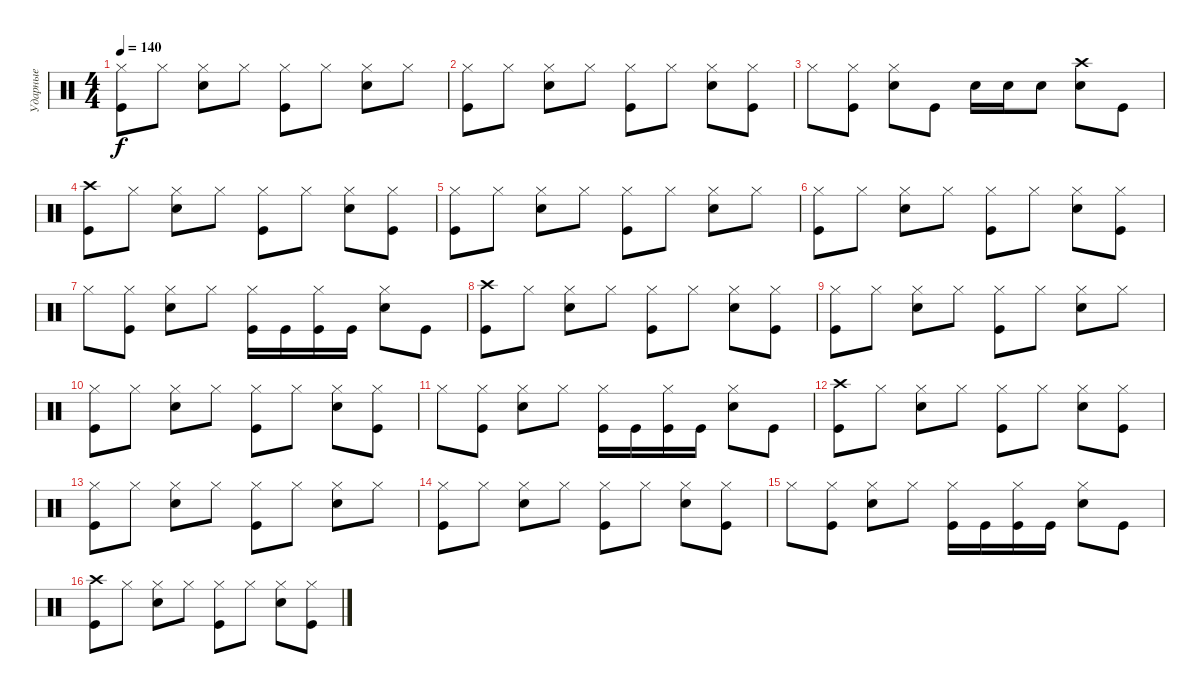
\track ("Ударные" "Ударные") {instrument percussion}
\staff {score}
\articulation defaults
\ts (4 4)
\tempo 140
\clef neutral
\ks c
("Hi-Hat (closed)" "Kick (hit)").8{dy f} "Hi-Hat (closed)".8 ("Hi-Hat (closed)" "Electric Snare (hit)").8 "Hi-Hat (closed)".8 ("Hi-Hat (closed)" "Kick (hit)").8 "Hi-Hat (closed)".8 ("Hi-Hat (closed)" "Electric Snare (hit)").8 "Hi-Hat (closed)".8 |
("Hi-Hat (closed)" "Kick (hit)").8 "Hi-Hat (closed)".8 ("Hi-Hat (closed)" "Electric Snare (hit)").8 "Hi-Hat (closed)".8 ("Hi-Hat (closed)" "Kick (hit)").8 "Hi-Hat (closed)".8 ("Hi-Hat (closed)" "Electric Snare (hit)").8 ("Hi-Hat (closed)" "Kick (hit)").8 |
"Hi-Hat (closed)".8 ("Hi-Hat (closed)" "Kick (hit)").8 ("Hi-Hat (closed)" "Electric Snare (hit)").8 "Kick (hit)".8 "Electric Snare (hit)".16 "Electric Snare (hit)".16 "Electric Snare (hit)".8 ("Crash high (hit)" "Electric Snare (hit)").8 "Kick (hit)".8 |
("Crash high (hit)" "Kick (hit)").8 "Hi-Hat (closed)".8 ("Hi-Hat (closed)" "Electric Snare (hit)").8 "Hi-Hat (closed)".8 ("Hi-Hat (closed)" "Kick (hit)").8 "Hi-Hat (closed)".8 ("Hi-Hat (closed)" "Electric Snare (hit)").8 ("Hi-Hat (closed)" "Kick (hit)").8 |
("Hi-Hat (closed)" "Kick (hit)").8 "Hi-Hat (closed)".8 ("Hi-Hat (closed)" "Electric Snare (hit)").8 "Hi-Hat (closed)".8 ("Hi-Hat (closed)" "Kick (hit)").8 "Hi-Hat (closed)".8 ("Hi-Hat (closed)" "Electric Snare (hit)").8 "Hi-Hat (closed)".8 |
("Hi-Hat (closed)" "Kick (hit)").8 "Hi-Hat (closed)".8 ("Hi-Hat (closed)" "Electric Snare (hit)").8 "Hi-Hat (closed)".8 ("Hi-Hat (closed)" "Kick (hit)").8 "Hi-Hat (closed)".8 ("Hi-Hat (closed)" "Electric Snare (hit)").8 ("Hi-Hat (closed)" "Kick (hit)").8 |
"Hi-Hat (closed)".8 ("Hi-Hat (closed)" "Kick (hit)").8 ("Hi-Hat (closed)" "Electric Snare (hit)").8 "Hi-Hat (closed)".8 ("Hi-Hat (closed)" "Kick (hit)").16 "Kick (hit)".16 ("Hi-Hat (closed)" "Kick (hit)").16 "Kick (hit)".16 ("Hi-Hat (closed)" "Electric Snare (hit)").8 "Kick (hit)".8 |
("Crash high (hit)" "Kick (hit)").8 "Hi-Hat (closed)".8 ("Hi-Hat (closed)" "Electric Snare (hit)").8 "Hi-Hat (closed)".8 ("Hi-Hat (closed)" "Kick (hit)").8 "Hi-Hat (closed)".8 ("Hi-Hat (closed)" "Electric Snare (hit)").8 ("Hi-Hat (closed)" "Kick (hit)").8 |
("Hi-Hat (closed)" "Kick (hit)").8 "Hi-Hat (closed)".8 ("Hi-Hat (closed)" "Electric Snare (hit)").8 "Hi-Hat (closed)".8 ("Hi-Hat (closed)" "Kick (hit)").8 "Hi-Hat (closed)".8 ("Hi-Hat (closed)" "Electric Snare (hit)").8 "Hi-Hat (closed)".8 |
("Hi-Hat (closed)" "Kick (hit)").8 "Hi-Hat (closed)".8 ("Hi-Hat (closed)" "Electric Snare (hit)").8 "Hi-Hat (closed)".8 ("Hi-Hat (closed)" "Kick (hit)").8 "Hi-Hat (closed)".8 ("Hi-Hat (closed)" "Electric Snare (hit)").8 ("Hi-Hat (closed)" "Kick (hit)").8 |
"Hi-Hat (closed)".8 ("Hi-Hat (closed)" "Kick (hit)").8 ("Hi-Hat (closed)" "Electric Snare (hit)").8 "Hi-Hat (closed)".8 ("Hi-Hat (closed)" "Kick (hit)").16 "Kick (hit)".16 ("Hi-Hat (closed)" "Kick (hit)").16 "Kick (hit)".16 ("Hi-Hat (closed)" "Electric Snare (hit)").8 "Kick (hit)".8 |
("Crash high (hit)" "Kick (hit)").8 "Hi-Hat (closed)".8 ("Hi-Hat (closed)" "Electric Snare (hit)").8 "Hi-Hat (closed)".8 ("Hi-Hat (closed)" "Kick (hit)").8 "Hi-Hat (closed)".8 ("Hi-Hat (closed)" "Electric Snare (hit)").8 ("Hi-Hat (closed)" "Kick (hit)").8 |
("Hi-Hat (closed)" "Kick (hit)").8 "Hi-Hat (closed)".8 ("Hi-Hat (closed)" "Electric Snare (hit)").8 "Hi-Hat (closed)".8 ("Hi-Hat (closed)" "Kick (hit)").8 "Hi-Hat (closed)".8 ("Hi-Hat (closed)" "Electric Snare (hit)").8 "Hi-Hat (closed)".8 |
("Hi-Hat (closed)" "Kick (hit)").8 "Hi-Hat (closed)".8 ("Hi-Hat (closed)" "Electric Snare (hit)").8 "Hi-Hat (closed)".8 ("Hi-Hat (closed)" "Kick (hit)").8 "Hi-Hat (closed)".8 ("Hi-Hat (closed)" "Electric Snare (hit)").8 ("Hi-Hat (closed)" "Kick (hit)").8 |
"Hi-Hat (closed)".8 ("Hi-Hat (closed)" "Kick (hit)").8 ("Hi-Hat (closed)" "Electric Snare (hit)").8 "Hi-Hat (closed)".8 ("Hi-Hat (closed)" "Kick (hit)").16 "Kick (hit)".16 ("Hi-Hat (closed)" "Kick (hit)").16 "Kick (hit)".16 ("Hi-Hat (closed)" "Electric Snare (hit)").8 "Kick (hit)".8 |
("Crash high (hit)" "Kick (hit)").8 "Hi-Hat (closed)".8 ("Hi-Hat (closed)" "Electric Snare (hit)").8 "Hi-Hat (closed)".8 ("Hi-Hat (closed)" "Kick (hit)").8 "Hi-Hat (closed)".8 ("Hi-Hat (closed)" "Electric Snare (hit)").8 ("Hi-Hat (closed)" "Kick (hit)").8
